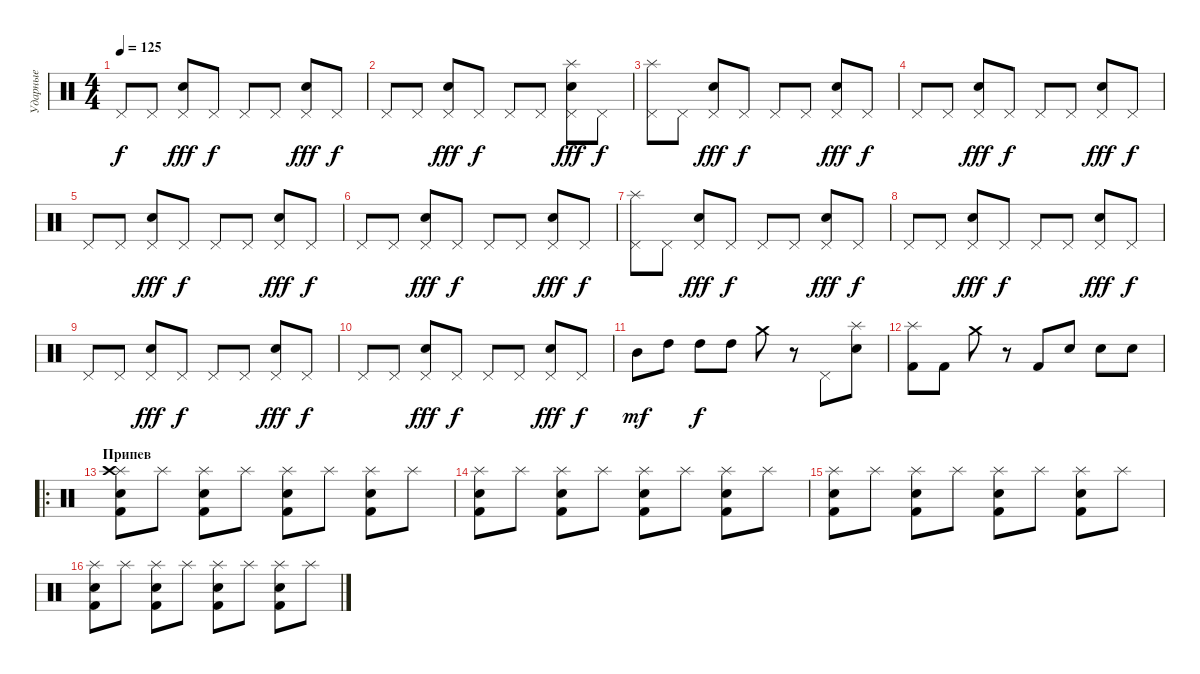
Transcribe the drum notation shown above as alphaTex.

\track ("Ударные" "Ударные") {instrument percussion}
\staff {score}
\articulation defaults
\ts (4 4)
\tempo 125
\clef neutral
\ks c "Pedal Hi-Hat (hit)".8{dy f} "Pedal Hi-Hat (hit)".8
("Electric Snare (hit)" "Pedal Hi-Hat (hit)").8{dy fff} "Pedal Hi-Hat (hit)".8{dy f} "Pedal Hi-Hat (hit)".8 "Pedal Hi-Hat (hit)".8 ("Electric Snare (hit)" "Pedal Hi-Hat (hit)").8{dy fff} "Pedal Hi-Hat (hit)".8{dy f} |
"Pedal Hi-Hat (hit)".8 "Pedal Hi-Hat (hit)".8 ("Electric Snare (hit)" "Pedal Hi-Hat (hit)").8{dy fff} "Pedal Hi-Hat (hit)".8{dy f} "Pedal Hi-Hat (hit)".8 "Pedal Hi-Hat (hit)".8 ("Electric Snare (hit)" "Splash (hit)" "Pedal Hi-Hat (hit)").8{dy fff} "Pedal Hi-Hat (hit)".8{dy f} |
("Splash (hit)" "Pedal Hi-Hat (hit)").8 "Pedal Hi-Hat (hit)".8 ("Electric Snare (hit)" "Pedal Hi-Hat (hit)").8{dy fff} "Pedal Hi-Hat (hit)".8{dy f} "Pedal Hi-Hat (hit)".8 "Pedal Hi-Hat (hit)".8 ("Electric Snare (hit)" "Pedal Hi-Hat (hit)").8{dy fff} "Pedal Hi-Hat (hit)".8{dy f} |
"Pedal Hi-Hat (hit)".8 "Pedal Hi-Hat (hit)".8 ("Electric Snare (hit)" "Pedal Hi-Hat (hit)").8{dy fff} "Pedal Hi-Hat (hit)".8{dy f} "Pedal Hi-Hat (hit)".8 "Pedal Hi-Hat (hit)".8 ("Electric Snare (hit)" "Pedal Hi-Hat (hit)").8{dy fff} "Pedal Hi-Hat (hit)".8{dy f} |
"Pedal Hi-Hat (hit)".8 "Pedal Hi-Hat (hit)".8 ("Electric Snare (hit)" "Pedal Hi-Hat (hit)").8{dy fff} "Pedal Hi-Hat (hit)".8{dy f} "Pedal Hi-Hat (hit)".8 "Pedal Hi-Hat (hit)".8 ("Electric Snare (hit)" "Pedal Hi-Hat (hit)").8{dy fff} "Pedal Hi-Hat (hit)".8{dy f} |
"Pedal Hi-Hat (hit)".8 "Pedal Hi-Hat (hit)".8 ("Electric Snare (hit)" "Pedal Hi-Hat (hit)").8{dy fff} "Pedal Hi-Hat (hit)".8{dy f} "Pedal Hi-Hat (hit)".8 "Pedal Hi-Hat (hit)".8 ("Electric Snare (hit)" "Pedal Hi-Hat (hit)").8{dy fff} "Pedal Hi-Hat (hit)".8{dy f} |
("Splash (hit)" "Pedal Hi-Hat (hit)").8 "Pedal Hi-Hat (hit)".8 ("Electric Snare (hit)" "Pedal Hi-Hat (hit)").8{dy fff} "Pedal Hi-Hat (hit)".8{dy f} "Pedal Hi-Hat (hit)".8 "Pedal Hi-Hat (hit)".8 ("Electric Snare (hit)" "Pedal Hi-Hat (hit)").8{dy fff} "Pedal Hi-Hat (hit)".8{dy f} |
"Pedal Hi-Hat (hit)".8 "Pedal Hi-Hat (hit)".8 ("Electric Snare (hit)" "Pedal Hi-Hat (hit)").8{dy fff} "Pedal Hi-Hat (hit)".8{dy f} "Pedal Hi-Hat (hit)".8 "Pedal Hi-Hat (hit)".8 ("Electric Snare (hit)" "Pedal Hi-Hat (hit)").8{dy fff} "Pedal Hi-Hat (hit)".8{dy f} |
"Pedal Hi-Hat (hit)".8 "Pedal Hi-Hat (hit)".8 ("Electric Snare (hit)" "Pedal Hi-Hat (hit)").8{dy fff} "Pedal Hi-Hat (hit)".8{dy f} "Pedal Hi-Hat (hit)".8 "Pedal Hi-Hat (hit)".8 ("Electric Snare (hit)" "Pedal Hi-Hat (hit)").8{dy fff} "Pedal Hi-Hat (hit)".8{dy f} |
"Pedal Hi-Hat (hit)".8 "Pedal Hi-Hat (hit)".8 ("Electric Snare (hit)" "Pedal Hi-Hat (hit)").8{dy fff} "Pedal Hi-Hat (hit)".8{dy f} "Pedal Hi-Hat (hit)".8 "Pedal Hi-Hat (hit)".8 ("Electric Snare (hit)" "Pedal Hi-Hat (hit)").8{dy fff} "Pedal Hi-Hat (hit)".8{dy f} |
"Mid Tom (hit)".8{dy mf} "High Tom (hit)".8 "High Tom (hit)".8{dy f} "High Tom (hit)".8 "Crash medium (hit)".8 r.8 "Pedal Hi-Hat (hit)".8 ("Electric Snare (hit)" "Splash (hit)").8 |
("Splash (hit)" "Kick (hit) 2").8 "Kick (hit) 2".8 "Crash medium (hit)".8 r.8 "Kick (hit) 2".8 "Electric Snare (hit)".8 "Electric Snare (hit)".8 "Electric Snare (hit)".8 |
\ro
\section ("" "Припев")
("Snare (hit) 2" "Splash (hit)" "Crash high (hit)" "Kick (hit) 2").8{volume 16} "Splash (hit)".8 ("Electric Snare (hit)" "Splash (hit)" "Kick (hit) 2").8 "Splash (hit)".8 ("Snare (hit) 2" "Splash (hit)" "Kick (hit) 2").8 "Splash (hit)".8 ("Electric Snare (hit)" "Splash (hit)" "Kick (hit) 2").8 "Splash (hit)".8 |
("Snare (hit) 2" "Splash (hit)" "Kick (hit) 2").8 "Splash (hit)".8 ("Electric Snare (hit)" "Splash (hit)" "Kick (hit) 2").8 "Splash (hit)".8 ("Snare (hit) 2" "Splash (hit)" "Kick (hit) 2").8 "Splash (hit)".8 ("Electric Snare (hit)" "Splash (hit)" "Kick (hit) 2").8 "Splash (hit)".8 |
("Snare (hit) 2" "Splash (hit)" "Kick (hit) 2").8 "Splash (hit)".8 ("Electric Snare (hit)" "Splash (hit)" "Kick (hit) 2").8 "Splash (hit)".8 ("Snare (hit) 2" "Splash (hit)" "Kick (hit) 2").8 "Splash (hit)".8 ("Electric Snare (hit)" "Splash (hit)" "Kick (hit) 2").8 "Splash (hit)".8 |
("Snare (hit) 2" "Splash (hit)" "Kick (hit) 2").8 "Splash (hit)".8 ("Electric Snare (hit)" "Splash (hit)" "Kick (hit) 2").8 "Splash (hit)".8 ("Snare (hit) 2" "Splash (hit)" "Kick (hit) 2").8 "Splash (hit)".8 ("Electric Snare (hit)" "Splash (hit)" "Kick (hit) 2").8 "Splash (hit)".8
